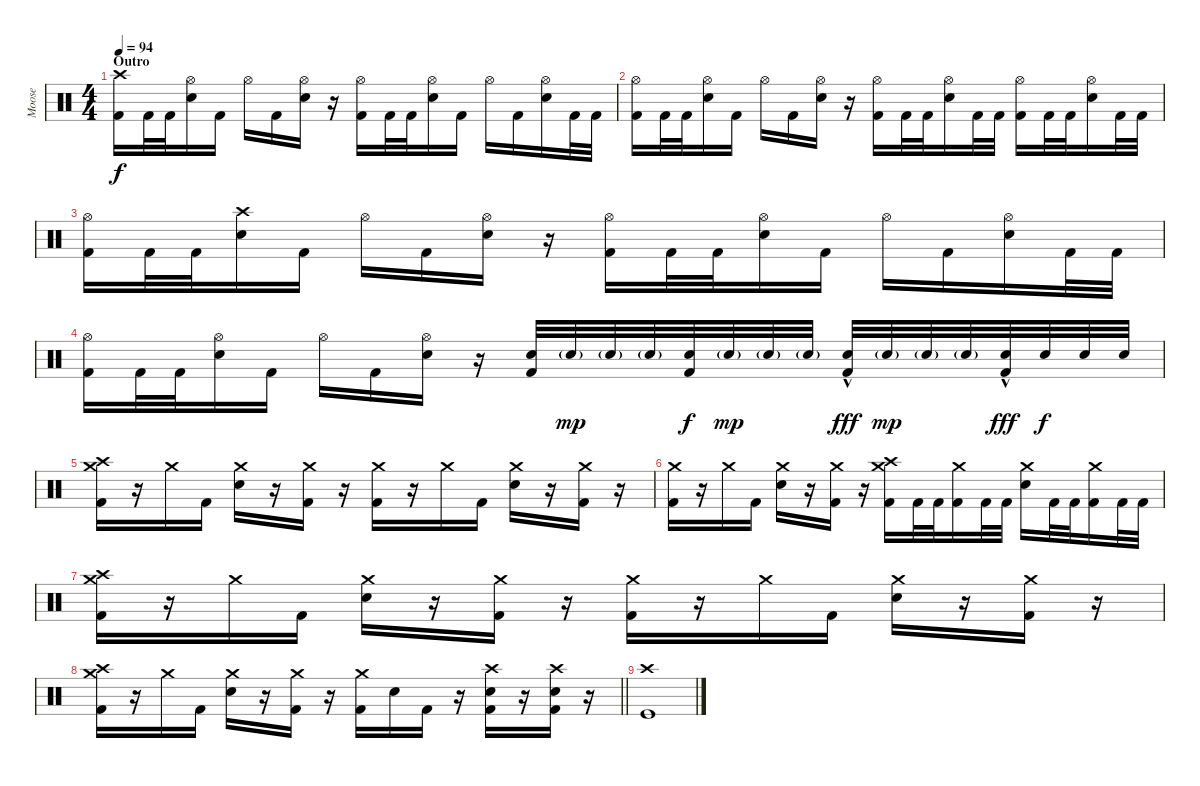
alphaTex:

\track ("Moose" "Moose") {instrument percussion}
\staff {score}
\articulation defaults
\ts (4 4)
\section ("" "Outro")
\tempo 94
\clef neutral
\ks c
("Crash high (hit)" "Kick (hit) 2").16{dy f} "Kick (hit) 2".32 "Kick (hit) 2".32 ("Hi-Hat (open)" "Electric Snare (hit)").16 "Kick (hit) 2".16 "Hi-Hat (open)".16 "Kick (hit) 2".16 ("Hi-Hat (open)" "Electric Snare (hit)").16 r.16 ("Hi-Hat (open)" "Kick (hit) 2").16 "Kick (hit) 2".32 "Kick (hit) 2".32 ("Hi-Hat (open)" "Electric Snare (hit)").16 "Kick (hit) 2".16 "Hi-Hat (open)".16 "Kick (hit) 2".16 ("Hi-Hat (open)" "Electric Snare (hit)").16 "Kick (hit) 2".32 "Kick (hit) 2".32 |
("Hi-Hat (open)" "Kick (hit) 2").16 "Kick (hit) 2".32 "Kick (hit) 2".32 ("Hi-Hat (open)" "Electric Snare (hit)").16 "Kick (hit) 2".16 "Hi-Hat (open)".16 "Kick (hit) 2".16 ("Hi-Hat (open)" "Electric Snare (hit)").16 r.16 ("Hi-Hat (open)" "Kick (hit) 2").16 "Kick (hit) 2".32 "Kick (hit) 2".32 ("Hi-Hat (open)" "Electric Snare (hit)").16 "Kick (hit) 2".32 "Kick (hit) 2".32 ("Hi-Hat (open)" "Kick (hit) 2").16 "Kick (hit) 2".32 "Kick (hit) 2".32 ("Hi-Hat (open)" "Electric Snare (hit)").16 "Kick (hit) 2".32 "Kick (hit) 2".32 |
("Hi-Hat (open)" "Kick (hit) 2").16 "Kick (hit) 2".32 "Kick (hit) 2".32 ("Crash high (hit)" "Electric Snare (hit)").16 "Kick (hit) 2".16 "Hi-Hat (open)".16 "Kick (hit) 2".16 ("Hi-Hat (open)" "Electric Snare (hit)").16 r.16 ("Hi-Hat (open)" "Kick (hit) 2").16 "Kick (hit) 2".32 "Kick (hit) 2".32 ("Hi-Hat (open)" "Electric Snare (hit)").16 "Kick (hit) 2".16 "Hi-Hat (open)".16 "Kick (hit) 2".16 ("Hi-Hat (open)" "Electric Snare (hit)").16 "Kick (hit) 2".32 "Kick (hit) 2".32 |
("Hi-Hat (open)" "Kick (hit) 2").16 "Kick (hit) 2".32 "Kick (hit) 2".32 ("Hi-Hat (open)" "Electric Snare (hit)").16 "Kick (hit) 2".16 "Hi-Hat (open)".16 "Kick (hit) 2".16 ("Hi-Hat (open)" "Electric Snare (hit)").16 r.16 ("Electric Snare (hit)" "Kick (hit) 2").32 "Electric Snare (hit)"{g}.32{dy mp} "Electric Snare (hit)"{g}.32 "Electric Snare (hit)"{g}.32 ("Electric Snare (hit)" "Kick (hit) 2").32{dy f} "Electric Snare (hit)"{g}.32{dy mp} "Electric Snare (hit)"{g}.32 "Electric Snare (hit)"{g}.32 ("Electric Snare (hit)"{hac} "Kick (hit) 2").32{dy fff} "Electric Snare (hit)"{g}.32{dy mp} "Electric Snare (hit)"{g}.32 "Electric Snare (hit)"{g}.32 ("Electric Snare (hit)"{hac} "Kick (hit) 2").32{dy fff} "Electric Snare (hit)".32{dy f} "Electric Snare (hit)".32 "Electric Snare (hit)".32 |
("Crash high (hit)" "Crash medium (hit)" "Kick (hit) 2").16 r.16 "Crash medium (hit)".16 "Kick (hit) 2".16 ("Crash medium (hit)" "Electric Snare (hit)").16 r.16 ("Crash medium (hit)" "Kick (hit) 2").16 r.16 ("Crash medium (hit)" "Kick (hit) 2").16 r.16 "Crash medium (hit)".16 "Kick (hit) 2".16 ("Crash medium (hit)" "Electric Snare (hit)").16 r.16 ("Crash medium (hit)" "Kick (hit) 2").16 r.16 |
("Crash medium (hit)" "Kick (hit) 2").16 r.16 "Crash medium (hit)".16 "Kick (hit) 2".16 ("Crash medium (hit)" "Electric Snare (hit)").16 r.16 ("Crash medium (hit)" "Kick (hit) 2").16 r.16 ("Crash high (hit)" "Crash medium (hit)" "Kick (hit) 2").16 "Kick (hit) 2".32 "Kick (hit) 2".32 ("Crash medium (hit)" "Kick (hit) 2").16 "Kick (hit) 2".32 "Kick (hit) 2".32 ("Crash medium (hit)" "Electric Snare (hit)").16 "Kick (hit) 2".32 "Kick (hit) 2".32 ("Crash medium (hit)" "Kick (hit) 2").16 "Kick (hit) 2".32 "Kick (hit) 2".32 |
("Crash high (hit)" "Crash medium (hit)" "Kick (hit) 2").16 r.16 "Crash medium (hit)".16 "Kick (hit) 2".16 ("Crash medium (hit)" "Electric Snare (hit)").16 r.16 ("Crash medium (hit)" "Kick (hit) 2").16 r.16 ("Crash medium (hit)" "Kick (hit) 2").16 r.16 "Crash medium (hit)".16 "Kick (hit) 2".16 ("Crash medium (hit)" "Electric Snare (hit)").16 r.16 ("Crash medium (hit)" "Kick (hit) 2").16 r.16 |
\barLineRight lightlight
("Crash high (hit)" "Crash medium (hit)" "Kick (hit) 2").16 r.16 "Crash medium (hit)".16 "Kick (hit) 2".16 ("Crash medium (hit)" "Electric Snare (hit)").16 r.16 ("Crash medium (hit)" "Kick (hit) 2").16 r.16 ("Crash medium (hit)" "Kick (hit) 2").16 "Electric Snare (hit)".16 "Kick (hit) 2".16 r.16 ("Crash high (hit)" "Electric Snare (hit)" "Kick (hit) 2").16 r.16 ("Crash high (hit)" "Electric Snare (hit)" "Kick (hit) 2").16 r.16 |
("Crash high (hit)" "Kick (hit)").1
